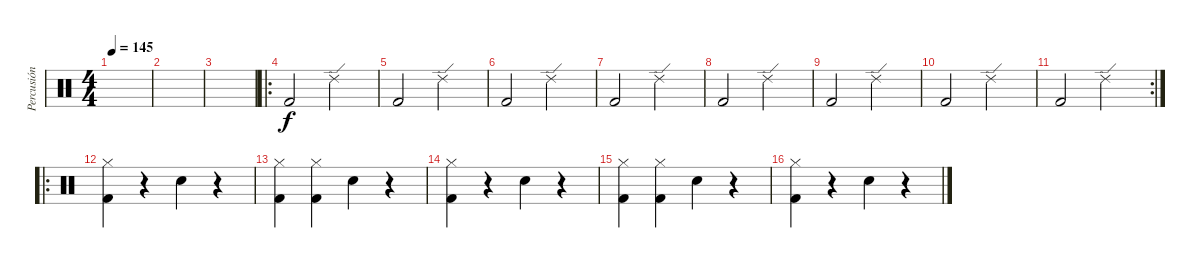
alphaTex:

\track ("Percusión" "Percusión") {instrument percussion}
\staff {score}
\articulation defaults
\ts (4 4)
\tempo 145
\clef neutral
\ks c
|
|
|
\ro "Kick (hit) 2".2 "Ride (edge) 2".2
|
"Kick (hit) 2".2 "Ride (edge) 2".2 |
"Kick (hit) 2".2 "Ride (edge) 2".2 |
"Kick (hit) 2".2 "Ride (edge) 2".2 |
"Kick (hit) 2".2 "Ride (edge) 2".2 |
"Kick (hit) 2".2 "Ride (edge) 2".2 |
"Kick (hit) 2".2 "Ride (edge) 2".2 |
\rc 2 "Kick (hit) 2".2 "Ride (edge) 2".2
|
\ro
("Hi-Hat (closed)" "Kick (hit) 2").4 r.4 "Electric Snare (hit)".4 r.4 |
("Hi-Hat (closed)" "Kick (hit) 2").4 ("Hi-Hat (closed)" "Kick (hit) 2").4 "Electric Snare (hit)".4 r.4 |
("Hi-Hat (closed)" "Kick (hit) 2").4 r.4 "Electric Snare (hit)".4 r.4 |
("Hi-Hat (closed)" "Kick (hit) 2").4 ("Hi-Hat (closed)" "Kick (hit) 2").4 "Electric Snare (hit)".4 r.4 |
("Hi-Hat (closed)" "Kick (hit) 2").4 r.4 "Electric Snare (hit)".4 r.4
